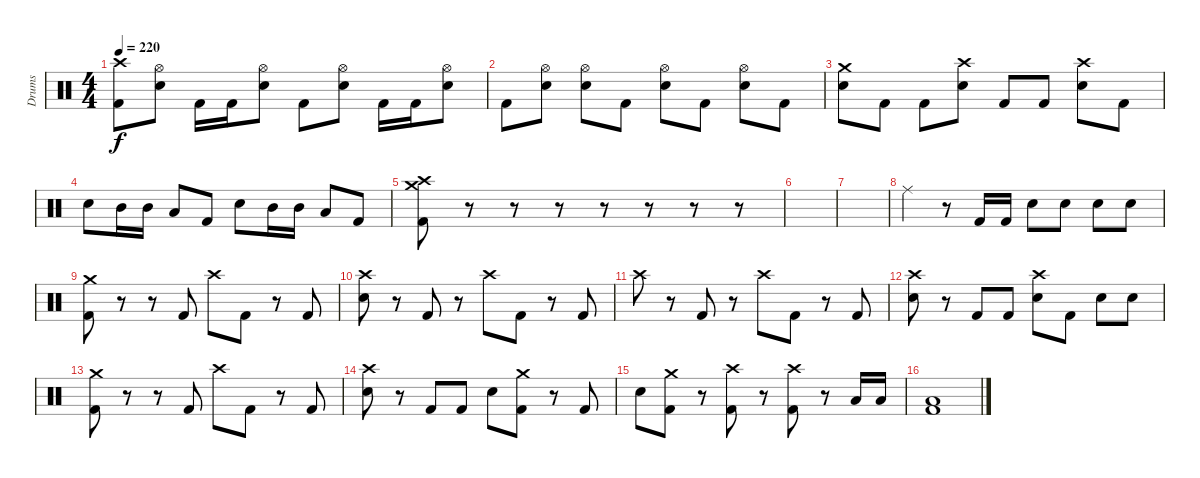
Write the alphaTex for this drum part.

\track ("Drums" "Drums") {instrument percussion}
\staff {score}
\articulation defaults
\ts (4 4)
\tempo 220
\clef neutral
\ks c
("Crash high (hit)" "Kick (hit) 2").8{dy f} ("Hi-Hat (open)" "Electric Snare (hit)").8 "Kick (hit) 2".16 "Kick (hit) 2".16 ("Hi-Hat (open)" "Electric Snare (hit)").8 "Kick (hit) 2".8 ("Hi-Hat (open)" "Electric Snare (hit)").8 "Kick (hit) 2".16 "Kick (hit) 2".16 ("Hi-Hat (open)" "Electric Snare (hit)").8 |
"Kick (hit) 2".8 ("Hi-Hat (open)" "Electric Snare (hit)").8 ("Hi-Hat (open)" "Electric Snare (hit)").8 "Kick (hit) 2".8 ("Hi-Hat (open)" "Electric Snare (hit)").8 "Kick (hit) 2".8 ("Hi-Hat (open)" "Electric Snare (hit)").8 "Kick (hit) 2".8 |
("Crash medium (hit)" "Electric Snare (hit)").8 "Kick (hit) 2".8 "Kick (hit) 2".8 ("Crash high (hit)" "Electric Snare (hit)").8 "Kick (hit) 2".8 "Kick (hit) 2".8 ("Crash high (hit)" "Electric Snare (hit)").8 "Kick (hit) 2".8 |
"Electric Snare (hit)".8 "Mid Tom (hit)".16 "Mid Tom (hit)".16 "Low Floor Tom (hit)".8 "Kick (hit) 2".8 "Electric Snare (hit)".8 "Mid Tom (hit)".16 "Mid Tom (hit)".16 "Low Floor Tom (hit)".8 "Kick (hit) 2".8 |
("Crash medium (hit)" "Crash high (hit)" "Kick (hit) 2").8 r.8 r.8 r.8 r.8 r.8 r.8 r.8 |
|
|
"Ride (middle)".4 r.8 "Kick (hit) 2".16 "Kick (hit) 2".16 "Electric Snare (hit)".8 "Electric Snare (hit)".8 "Electric Snare (hit)".8 "Electric Snare (hit)".8 |
("Crash medium (hit)" "Kick (hit) 2").8 r.8 r.8 "Kick (hit) 2".8 "Crash high (hit)".8 "Kick (hit) 2".8 r.8 "Kick (hit) 2".8 |
("Crash high (hit)" "Electric Snare (hit)").8 r.8 "Kick (hit) 2".8 r.8 "Crash high (hit)".8 "Kick (hit) 2".8 r.8 "Kick (hit) 2".8 |
"Crash high (hit)".8 r.8 "Kick (hit) 2".8 r.8 "Crash high (hit)".8 "Kick (hit) 2".8 r.8 "Kick (hit) 2".8 |
("Crash high (hit)" "Electric Snare (hit)").8 r.8 "Kick (hit) 2".8 "Kick (hit) 2".8 ("Crash high (hit)" "Electric Snare (hit)").8 "Kick (hit) 2".8 "Electric Snare (hit)".8 "Electric Snare (hit)".8 |
("Crash medium (hit)" "Kick (hit) 2").8 r.8 r.8 "Kick (hit) 2".8 "Crash high (hit)".8 "Kick (hit) 2".8 r.8 "Kick (hit) 2".8 |
("Crash high (hit)" "Electric Snare (hit)").8 r.8 "Kick (hit) 2".8 "Kick (hit) 2".8 "Electric Snare (hit)".8 ("Crash medium (hit)" "Kick (hit) 2").8 r.8 "Kick (hit) 2".8 |
"Electric Snare (hit)".8 ("Crash medium (hit)" "Kick (hit) 2").8 r.8 ("Crash high (hit)" "Kick (hit) 2").8 r.8 ("Crash high (hit)" "Kick (hit) 2").8 r.8 "Low Floor Tom (hit)".16 "Low Floor Tom (hit)".16 |
("Low Floor Tom (hit)" "Kick (hit) 2").1
